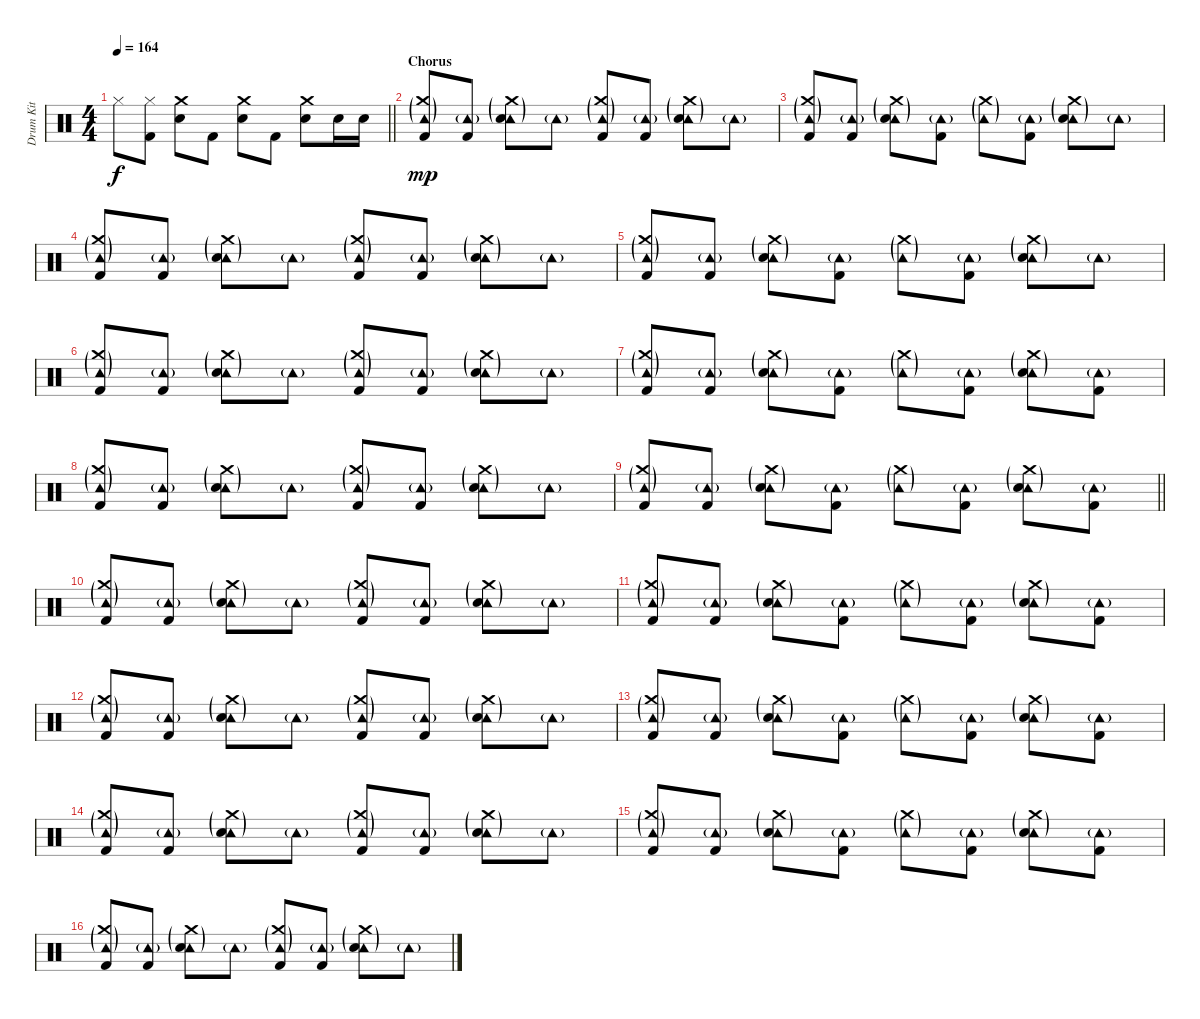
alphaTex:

\track ("Drum Kit" "Drum Kit") {instrument percussion}
\staff {score}
\articulation defaults
\ts (4 4)
\tempo 164
\clef neutral
\barLineRight lightlight
\ks c "Hi-Hat (closed)".8{dy f}
("Hi-Hat (closed)" "Kick (hit) 2").8 ("Crash medium (hit)" "Electric Snare (hit)").8 "Kick (hit) 2".8 ("Crash medium (hit)" "Electric Snare (hit)").8 "Kick (hit) 2".8 ("Crash medium (hit)" "Electric Snare (hit)").8 "Electric Snare (hit)".16 "Electric Snare (hit)".16 |
\section ("" "Chorus")
("Crash medium (hit)"{g} "Tambourine (hit)"{g} "Kick (hit) 2").8{dy mp} ("Tambourine (hit)"{g} "Kick (hit) 2").8 ("Crash medium (hit)"{g} "Tambourine (hit)"{g} "Electric Snare (hit)").8 "Tambourine (hit)"{g}.8 ("Crash medium (hit)"{g} "Tambourine (hit)"{g} "Kick (hit) 2").8 ("Tambourine (hit)"{g} "Kick (hit) 2").8 ("Crash medium (hit)"{g} "Tambourine (hit)"{g} "Electric Snare (hit)").8 "Tambourine (hit)"{g}.8 |
("Crash medium (hit)"{g} "Tambourine (hit)"{g} "Kick (hit) 2").8 ("Tambourine (hit)"{g} "Kick (hit) 2").8 ("Crash medium (hit)"{g} "Tambourine (hit)"{g} "Electric Snare (hit)").8 ("Tambourine (hit)"{g} "Kick (hit) 2").8 ("Crash medium (hit)"{g} "Tambourine (hit)"{g}).8 ("Tambourine (hit)"{g} "Kick (hit) 2").8 ("Crash medium (hit)"{g} "Tambourine (hit)"{g} "Electric Snare (hit)").8 "Tambourine (hit)"{g}.8 |
("Crash medium (hit)"{g} "Tambourine (hit)"{g} "Kick (hit) 2").8 ("Tambourine (hit)"{g} "Kick (hit) 2").8 ("Crash medium (hit)"{g} "Tambourine (hit)"{g} "Electric Snare (hit)").8 "Tambourine (hit)"{g}.8 ("Crash medium (hit)"{g} "Tambourine (hit)"{g} "Kick (hit) 2").8 ("Tambourine (hit)"{g} "Kick (hit) 2").8 ("Crash medium (hit)"{g} "Tambourine (hit)"{g} "Electric Snare (hit)").8 "Tambourine (hit)"{g}.8 |
("Crash medium (hit)"{g} "Tambourine (hit)"{g} "Kick (hit) 2").8 ("Tambourine (hit)"{g} "Kick (hit) 2").8 ("Crash medium (hit)"{g} "Tambourine (hit)"{g} "Electric Snare (hit)").8 ("Tambourine (hit)"{g} "Kick (hit) 2").8 ("Crash medium (hit)"{g} "Tambourine (hit)"{g}).8 ("Tambourine (hit)"{g} "Kick (hit) 2").8 ("Crash medium (hit)"{g} "Tambourine (hit)"{g} "Electric Snare (hit)").8 "Tambourine (hit)"{g}.8 |
("Crash medium (hit)"{g} "Tambourine (hit)"{g} "Kick (hit) 2").8 ("Tambourine (hit)"{g} "Kick (hit) 2").8 ("Crash medium (hit)"{g} "Tambourine (hit)"{g} "Electric Snare (hit)").8 "Tambourine (hit)"{g}.8 ("Crash medium (hit)"{g} "Tambourine (hit)"{g} "Kick (hit) 2").8 ("Tambourine (hit)"{g} "Kick (hit) 2").8 ("Crash medium (hit)"{g} "Tambourine (hit)"{g} "Electric Snare (hit)").8 "Tambourine (hit)"{g}.8 |
("Crash medium (hit)"{g} "Tambourine (hit)"{g} "Kick (hit) 2").8 ("Tambourine (hit)"{g} "Kick (hit) 2").8 ("Crash medium (hit)"{g} "Tambourine (hit)"{g} "Electric Snare (hit)").8 ("Tambourine (hit)"{g} "Kick (hit) 2").8 ("Crash medium (hit)"{g} "Tambourine (hit)"{g}).8 ("Tambourine (hit)"{g} "Kick (hit) 2").8 ("Crash medium (hit)"{g} "Tambourine (hit)"{g} "Electric Snare (hit)").8 ("Tambourine (hit)"{g} "Kick (hit) 2").8 |
("Crash medium (hit)"{g} "Tambourine (hit)"{g} "Kick (hit) 2").8 ("Tambourine (hit)"{g} "Kick (hit) 2").8 ("Crash medium (hit)"{g} "Tambourine (hit)"{g} "Electric Snare (hit)").8 "Tambourine (hit)"{g}.8 ("Crash medium (hit)"{g} "Tambourine (hit)"{g} "Kick (hit) 2").8 ("Tambourine (hit)"{g} "Kick (hit) 2").8 ("Crash medium (hit)"{g} "Tambourine (hit)"{g} "Electric Snare (hit)").8 "Tambourine (hit)"{g}.8 |
\barLineRight lightlight
("Crash medium (hit)"{g} "Tambourine (hit)"{g} "Kick (hit) 2").8 ("Tambourine (hit)"{g} "Kick (hit) 2").8 ("Crash medium (hit)"{g} "Tambourine (hit)"{g} "Electric Snare (hit)").8 ("Tambourine (hit)"{g} "Kick (hit) 2").8 ("Crash medium (hit)"{g} "Tambourine (hit)"{g}).8 ("Tambourine (hit)"{g} "Kick (hit) 2").8 ("Crash medium (hit)"{g} "Tambourine (hit)"{g} "Electric Snare (hit)").8 ("Tambourine (hit)"{g} "Kick (hit) 2").8 |
("Crash medium (hit)"{g} "Tambourine (hit)"{g} "Kick (hit) 2").8 ("Tambourine (hit)"{g} "Kick (hit) 2").8 ("Crash medium (hit)"{g} "Tambourine (hit)"{g} "Electric Snare (hit)").8 "Tambourine (hit)"{g}.8 ("Crash medium (hit)"{g} "Tambourine (hit)"{g} "Kick (hit) 2").8 ("Tambourine (hit)"{g} "Kick (hit) 2").8 ("Crash medium (hit)"{g} "Tambourine (hit)"{g} "Electric Snare (hit)").8 "Tambourine (hit)"{g}.8 |
("Crash medium (hit)"{g} "Tambourine (hit)"{g} "Kick (hit) 2").8 ("Tambourine (hit)"{g} "Kick (hit) 2").8 ("Crash medium (hit)"{g} "Tambourine (hit)"{g} "Electric Snare (hit)").8 ("Tambourine (hit)"{g} "Kick (hit) 2").8 ("Crash medium (hit)"{g} "Tambourine (hit)"{g}).8 ("Tambourine (hit)"{g} "Kick (hit) 2").8 ("Crash medium (hit)"{g} "Tambourine (hit)"{g} "Electric Snare (hit)").8 ("Tambourine (hit)"{g} "Kick (hit) 2").8 |
("Crash medium (hit)"{g} "Tambourine (hit)"{g} "Kick (hit) 2").8 ("Tambourine (hit)"{g} "Kick (hit) 2").8 ("Crash medium (hit)"{g} "Tambourine (hit)"{g} "Electric Snare (hit)").8 "Tambourine (hit)"{g}.8 ("Crash medium (hit)"{g} "Tambourine (hit)"{g} "Kick (hit) 2").8 ("Tambourine (hit)"{g} "Kick (hit) 2").8 ("Crash medium (hit)"{g} "Tambourine (hit)"{g} "Electric Snare (hit)").8 "Tambourine (hit)"{g}.8 |
("Crash medium (hit)"{g} "Tambourine (hit)"{g} "Kick (hit) 2").8 ("Tambourine (hit)"{g} "Kick (hit) 2").8 ("Crash medium (hit)"{g} "Tambourine (hit)"{g} "Electric Snare (hit)").8 ("Tambourine (hit)"{g} "Kick (hit) 2").8 ("Crash medium (hit)"{g} "Tambourine (hit)"{g}).8 ("Tambourine (hit)"{g} "Kick (hit) 2").8 ("Crash medium (hit)"{g} "Tambourine (hit)"{g} "Electric Snare (hit)").8 ("Tambourine (hit)"{g} "Kick (hit) 2").8 |
("Crash medium (hit)"{g} "Tambourine (hit)"{g} "Kick (hit) 2").8 ("Tambourine (hit)"{g} "Kick (hit) 2").8 ("Crash medium (hit)"{g} "Tambourine (hit)"{g} "Electric Snare (hit)").8 "Tambourine (hit)"{g}.8 ("Crash medium (hit)"{g} "Tambourine (hit)"{g} "Kick (hit) 2").8 ("Tambourine (hit)"{g} "Kick (hit) 2").8 ("Crash medium (hit)"{g} "Tambourine (hit)"{g} "Electric Snare (hit)").8 "Tambourine (hit)"{g}.8 |
("Crash medium (hit)"{g} "Tambourine (hit)"{g} "Kick (hit) 2").8 ("Tambourine (hit)"{g} "Kick (hit) 2").8 ("Crash medium (hit)"{g} "Tambourine (hit)"{g} "Electric Snare (hit)").8 ("Tambourine (hit)"{g} "Kick (hit) 2").8 ("Crash medium (hit)"{g} "Tambourine (hit)"{g}).8 ("Tambourine (hit)"{g} "Kick (hit) 2").8 ("Crash medium (hit)"{g} "Tambourine (hit)"{g} "Electric Snare (hit)").8 ("Tambourine (hit)"{g} "Kick (hit) 2").8 |
("Crash medium (hit)"{g} "Tambourine (hit)"{g} "Kick (hit) 2").8 ("Tambourine (hit)"{g} "Kick (hit) 2").8 ("Crash medium (hit)"{g} "Tambourine (hit)"{g} "Electric Snare (hit)").8 "Tambourine (hit)"{g}.8 ("Crash medium (hit)"{g} "Tambourine (hit)"{g} "Kick (hit) 2").8 ("Tambourine (hit)"{g} "Kick (hit) 2").8 ("Crash medium (hit)"{g} "Tambourine (hit)"{g} "Electric Snare (hit)").8 "Tambourine (hit)"{g}.8
